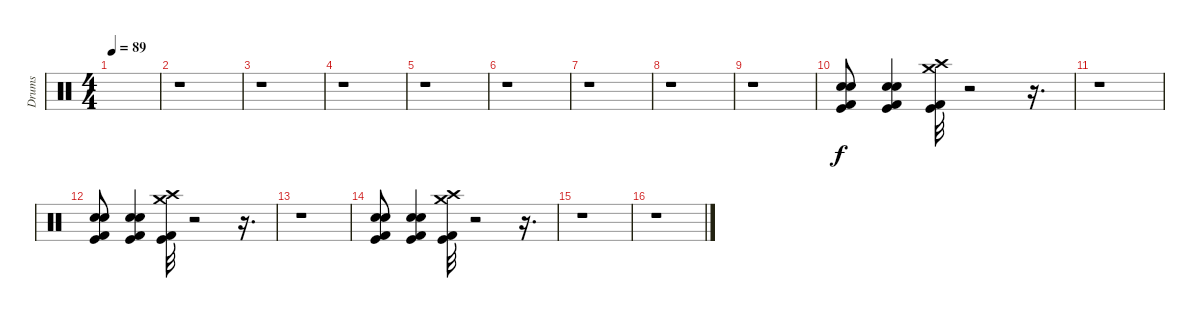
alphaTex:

\track ("Drums" "Drums") {instrument percussion}
\staff {score}
\articulation defaults
\ts (4 4)
\tempo 89
\clef neutral
\ks c
|
r.1 |
r.1 |
r.1 |
r.1 |
r.1 |
r.1 |
r.1 |
r.1 |
("Electric Snare (hit)" "Kick (hit)" "Electric Snare (hit)" "Kick (hit) 2").8 ("Electric Snare (hit)" "Kick (hit)" "Electric Snare (hit)" "Kick (hit) 2").4 ("Crash high (hit)" "Crash medium (hit)" "Kick (hit)" "Kick (hit) 2").32 r.2 r.16{d} |
r.1 |
("Electric Snare (hit)" "Kick (hit)" "Electric Snare (hit)" "Kick (hit) 2").8 ("Electric Snare (hit)" "Kick (hit)" "Electric Snare (hit)" "Kick (hit) 2").4 ("Crash high (hit)" "Crash medium (hit)" "Kick (hit)" "Kick (hit) 2").32 r.2 r.16{d} |
r.1 |
("Electric Snare (hit)" "Kick (hit)" "Electric Snare (hit)" "Kick (hit) 2").8 ("Electric Snare (hit)" "Kick (hit)" "Electric Snare (hit)" "Kick (hit) 2").4 ("Crash high (hit)" "Crash medium (hit)" "Kick (hit)" "Kick (hit) 2").32 r.2 r.16{d} |
r.1 |
r.1
